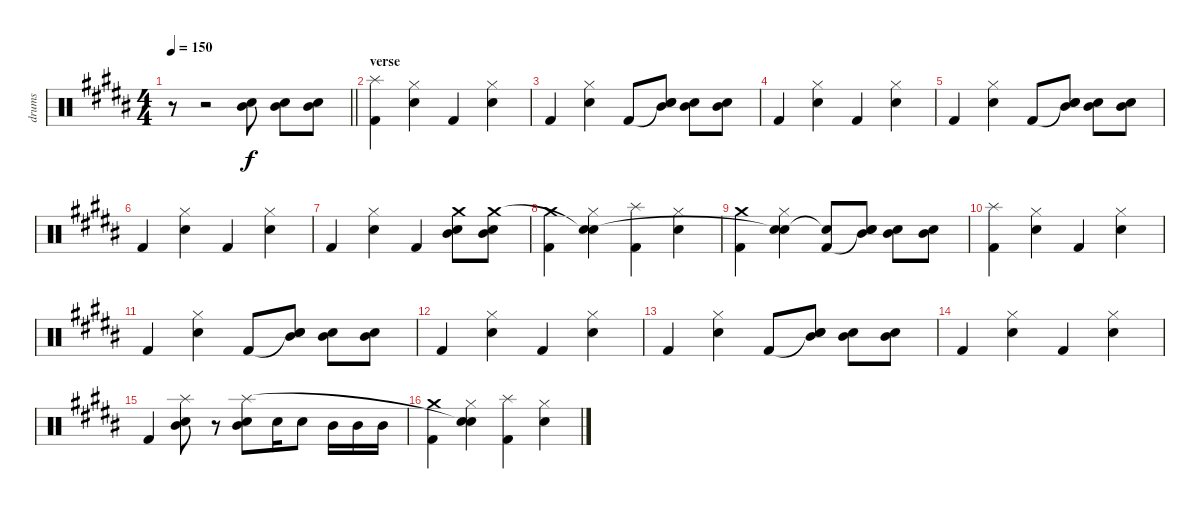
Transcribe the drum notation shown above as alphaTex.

\track ("drums" "drums") {instrument percussion}
\staff {score}
\articulation defaults
\ts (4 4)
\tempo 150
\clef neutral
\barLineRight lightlight
\ks b
r.8{dy f} r.2 ("Electric Snare (hit)" "Mid Tom (hit)").8 ("Electric Snare (hit)" "Mid Tom (hit)").8 ("Electric Snare (hit)" "Mid Tom (hit)").8 |
\section ("" "verse")
("Kick (hit) 2" "Splash (hit)").4 ("Hi-Hat (closed)" "Electric Snare (hit)").4 "Kick (hit) 2".4 ("Hi-Hat (closed)" "Electric Snare (hit)").4 |
"Kick (hit) 2".4 ("Hi-Hat (closed)" "Electric Snare (hit)").4 "Kick (hit) 2".8 ("Snare (hit)"{t} "Electric Snare (hit)" "Mid Tom (hit)").8 ("Mid Tom (hit)" "Electric Snare (hit)").8 ("Mid Tom (hit)" "Electric Snare (hit)").8 |
"Kick (hit) 2".4 ("Hi-Hat (closed)" "Electric Snare (hit)").4 "Kick (hit) 2".4 ("Hi-Hat (closed)" "Electric Snare (hit)").4 |
"Kick (hit) 2".4 ("Hi-Hat (closed)" "Electric Snare (hit)").4 "Kick (hit) 2".8 ("Snare (hit)"{t} "Electric Snare (hit)" "Mid Tom (hit)").8 ("Mid Tom (hit)" "Electric Snare (hit)").8 ("Mid Tom (hit)" "Electric Snare (hit)").8 |
"Kick (hit) 2".4 ("Hi-Hat (closed)" "Electric Snare (hit)").4 "Kick (hit) 2".4 ("Hi-Hat (closed)" "Electric Snare (hit)").4 |
"Kick (hit) 2".4 ("Hi-Hat (closed)" "Electric Snare (hit)").4 "Kick (hit) 2".4 ("Mid Tom (hit)" "Electric Snare (hit)" "Crash medium (hit)").8 ("Mid Tom (hit)" "Electric Snare (hit)" "Crash medium (hit)").8 |
("Kick (hit) 2" "Crash medium (hit)").4 ("Hi-Hat (closed)" "Electric Snare (hit)" "Snare (hit)"{t}).4 ("Kick (hit) 2" "Splash (hit)").4 ("Hi-Hat (closed)" "Electric Snare (hit)").4 |
("Kick (hit) 2" "Crash medium (hit)").4 ("Hi-Hat (closed)" "Electric Snare (hit)" "Snare (hit)"{t}).4 ("Kick (hit) 2" "Snare (hit)"{t}).8 ("Snare (hit)"{t} "Electric Snare (hit)" "Mid Tom (hit)").8 ("Mid Tom (hit)" "Electric Snare (hit)").8 ("Mid Tom (hit)" "Electric Snare (hit)").8 |
("Kick (hit) 2" "Splash (hit)").4 ("Hi-Hat (closed)" "Electric Snare (hit)").4 "Kick (hit) 2".4 ("Hi-Hat (closed)" "Electric Snare (hit)").4 |
"Kick (hit) 2".4 ("Hi-Hat (closed)" "Electric Snare (hit)").4 "Kick (hit) 2".8 ("Snare (hit)"{t} "Electric Snare (hit)" "Mid Tom (hit)").8 ("Mid Tom (hit)" "Electric Snare (hit)").8 ("Mid Tom (hit)" "Electric Snare (hit)").8 |
"Kick (hit) 2".4 ("Hi-Hat (closed)" "Electric Snare (hit)").4 "Kick (hit) 2".4 ("Hi-Hat (closed)" "Electric Snare (hit)").4 |
"Kick (hit) 2".4 ("Hi-Hat (closed)" "Electric Snare (hit)").4 "Kick (hit) 2".8 ("Snare (hit)"{t} "Electric Snare (hit)" "Mid Tom (hit)").8 ("Mid Tom (hit)" "Electric Snare (hit)").8 ("Mid Tom (hit)" "Electric Snare (hit)").8 |
"Kick (hit) 2".4 ("Hi-Hat (closed)" "Electric Snare (hit)").4 "Kick (hit) 2".4 ("Hi-Hat (closed)" "Electric Snare (hit)").4 |
"Kick (hit) 2".4 ("Mid Tom (hit)" "Electric Snare (hit)" "Splash (hit)").8 r.8 ("Mid Tom (hit)" "Electric Snare (hit)" "Splash (hit)").8 "Electric Snare (hit)".16 "Electric Snare (hit)".8 "Mid Tom (hit)".16 "Mid Tom (hit)".16 "Mid Tom (hit)".16 |
("Kick (hit) 2" "Crash medium (hit)").4 ("Hi-Hat (closed)" "Electric Snare (hit)" "Snare (hit)"{t}).4 ("Kick (hit) 2" "Splash (hit)").4 ("Hi-Hat (closed)" "Electric Snare (hit)").4
